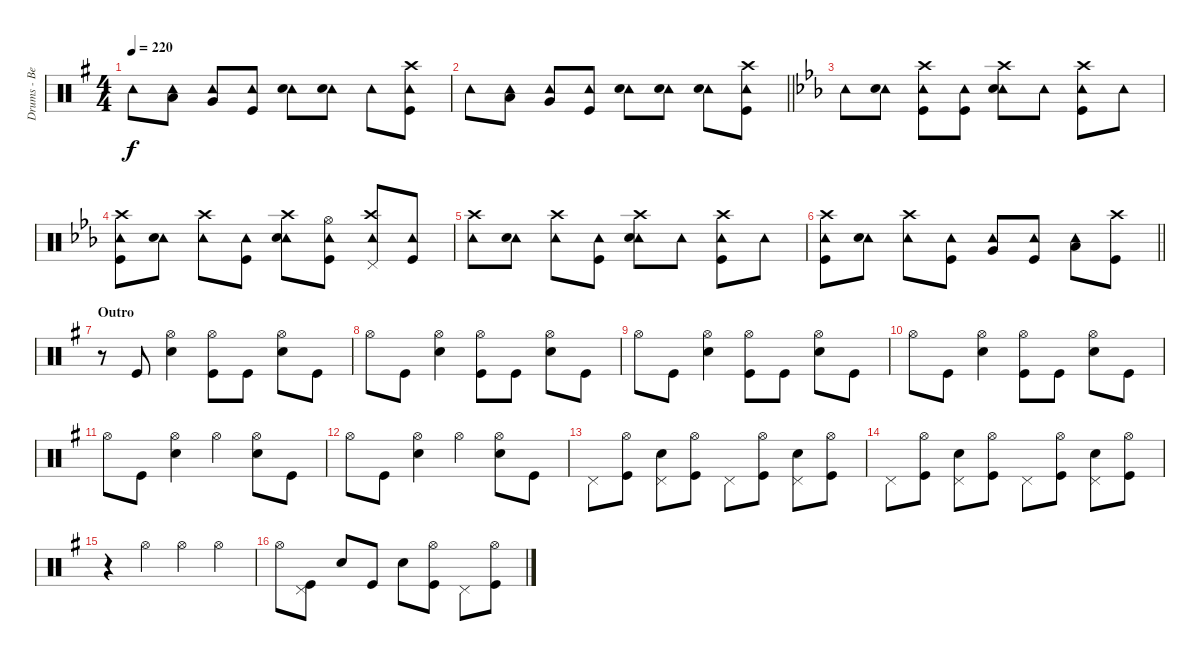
\track ("Drums - Ben Johnston" "Drums - Be") {instrument percussion}
\staff {score}
\articulation defaults
\ts (4 4)
\tempo 220
\clef neutral
\ks eminor "Tambourine (hit)".8{dy f}
("Tambourine (hit)" "Low Tom (hit)").8 ("Tambourine (hit)" "Very Low Tom (hit)").8 ("Tambourine (hit)" "Kick (hit)").8 ("Tambourine (hit)" "Snare (hit) 2").8 ("Tambourine (hit)" "Snare (hit) 2").8 "Tambourine (hit)".8 ("Crash high (hit)" "Tambourine (hit)" "Kick (hit)").8 |
\barLineRight lightlight "Tambourine (hit)".8
("Tambourine (hit)" "Low Tom (hit)").8 ("Tambourine (hit)" "Very Low Tom (hit)").8 ("Tambourine (hit)" "Kick (hit)").8 ("Tambourine (hit)" "Snare (hit) 2").8 ("Tambourine (hit)" "Snare (hit) 2").8 ("Tambourine (hit)" "Snare (hit) 2").8 ("Crash high (hit)" "Tambourine (hit)" "Kick (hit)").8 |
\ks eb "Tambourine (hit)".8
("Tambourine (hit)" "Snare (hit) 2").8 ("Crash high (hit)" "Tambourine (hit)" "Kick (hit)").8 ("Tambourine (hit)" "Kick (hit)").8 ("Crash high (hit)" "Tambourine (hit)" "Snare (hit) 2").8 "Tambourine (hit)".8 ("Crash high (hit)" "Tambourine (hit)" "Kick (hit)").8 "Tambourine (hit)".8 |
("Crash high (hit)" "Tambourine (hit)" "Kick (hit)").8 ("Tambourine (hit)" "Snare (hit) 2").8 ("Crash high (hit)" "Tambourine (hit)").8 ("Tambourine (hit)" "Kick (hit)").8 ("Crash high (hit)" "Tambourine (hit)" "Snare (hit) 2").8 ("Hi-Hat (open)" "Tambourine (hit)" "Kick (hit)").8 ("Crash high (hit)" "Tambourine (hit)" "Pedal Hi-Hat (hit)").8 ("Tambourine (hit)" "Kick (hit)").8 |
("Crash high (hit)" "Tambourine (hit)").8 ("Tambourine (hit)" "Snare (hit) 2").8 ("Crash high (hit)" "Tambourine (hit)").8 ("Tambourine (hit)" "Kick (hit)").8 ("Crash high (hit)" "Tambourine (hit)" "Snare (hit) 2").8 "Tambourine (hit)".8 ("Crash high (hit)" "Tambourine (hit)" "Kick (hit)").8 "Tambourine (hit)".8 |
\barLineRight lightlight
("Crash high (hit)" "Tambourine (hit)" "Kick (hit)").8 ("Tambourine (hit)" "Snare (hit) 2").8 ("Crash high (hit)" "Tambourine (hit)").8 ("Tambourine (hit)" "Kick (hit)").8 ("Tambourine (hit)" "Very Low Tom (hit)").8 ("Tambourine (hit)" "Kick (hit)").8 ("Tambourine (hit)" "Low Floor Tom (hit)").8 ("Crash high (hit)" "Kick (hit)").8 |
\section ("" "Outro")
\ks eminor
r.8 "Kick (hit)".8 ("Hi-Hat (open)" "Snare (hit) 2").4 ("Hi-Hat (open)" "Kick (hit)").8 "Kick (hit)".8 ("Hi-Hat (open)" "Snare (hit) 2").8 "Kick (hit)".8 |
"Hi-Hat (open)".8 "Kick (hit)".8 ("Hi-Hat (open)" "Snare (hit) 2").4 ("Hi-Hat (open)" "Kick (hit)").8 "Kick (hit)".8 ("Hi-Hat (open)" "Snare (hit) 2").8 "Kick (hit)".8 |
"Hi-Hat (open)".8 "Kick (hit)".8 ("Hi-Hat (open)" "Snare (hit) 2").4 ("Hi-Hat (open)" "Kick (hit)").8 "Kick (hit)".8 ("Hi-Hat (open)" "Snare (hit) 2").8 "Kick (hit)".8 |
"Hi-Hat (open)".8 "Kick (hit)".8 ("Hi-Hat (open)" "Snare (hit) 2").4 ("Hi-Hat (open)" "Kick (hit)").8 "Kick (hit)".8 ("Hi-Hat (open)" "Snare (hit) 2").8 "Kick (hit)".8 |
"Hi-Hat (open)".8 "Kick (hit)".8 ("Hi-Hat (open)" "Snare (hit) 2").4 "Hi-Hat (open)".4 ("Hi-Hat (open)" "Snare (hit) 2").8 "Kick (hit)".8 |
"Hi-Hat (open)".8 "Kick (hit)".8 ("Hi-Hat (open)" "Snare (hit) 2").4 "Hi-Hat (open)".4 ("Hi-Hat (open)" "Snare (hit) 2").8 "Kick (hit)".8 |
"Pedal Hi-Hat (hit)".8 ("Hi-Hat (open)" "Kick (hit)").8 ("Pedal Hi-Hat (hit)" "Snare (hit) 2").8 ("Hi-Hat (open)" "Kick (hit)").8 "Pedal Hi-Hat (hit)".8 ("Hi-Hat (open)" "Kick (hit)").8 ("Pedal Hi-Hat (hit)" "Snare (hit) 2").8 ("Hi-Hat (open)" "Kick (hit)").8 |
"Pedal Hi-Hat (hit)".8 ("Hi-Hat (open)" "Kick (hit)").8 ("Pedal Hi-Hat (hit)" "Snare (hit) 2").8 ("Hi-Hat (open)" "Kick (hit)").8 "Pedal Hi-Hat (hit)".8 ("Hi-Hat (open)" "Kick (hit)").8 ("Pedal Hi-Hat (hit)" "Snare (hit) 2").8 ("Hi-Hat (open)" "Kick (hit)").8 |
r.4 "Hi-Hat (open)".4 "Hi-Hat (open)".4 "Hi-Hat (open)".4 |
"Hi-Hat (open)".8 ("Pedal Hi-Hat (hit)" "Kick (hit)").8 "Snare (hit) 2".8 "Kick (hit)".8 "Snare (hit) 2".8 ("Hi-Hat (open)" "Kick (hit)").8 "Pedal Hi-Hat (hit)".8 ("Hi-Hat (open)" "Kick (hit)").8
